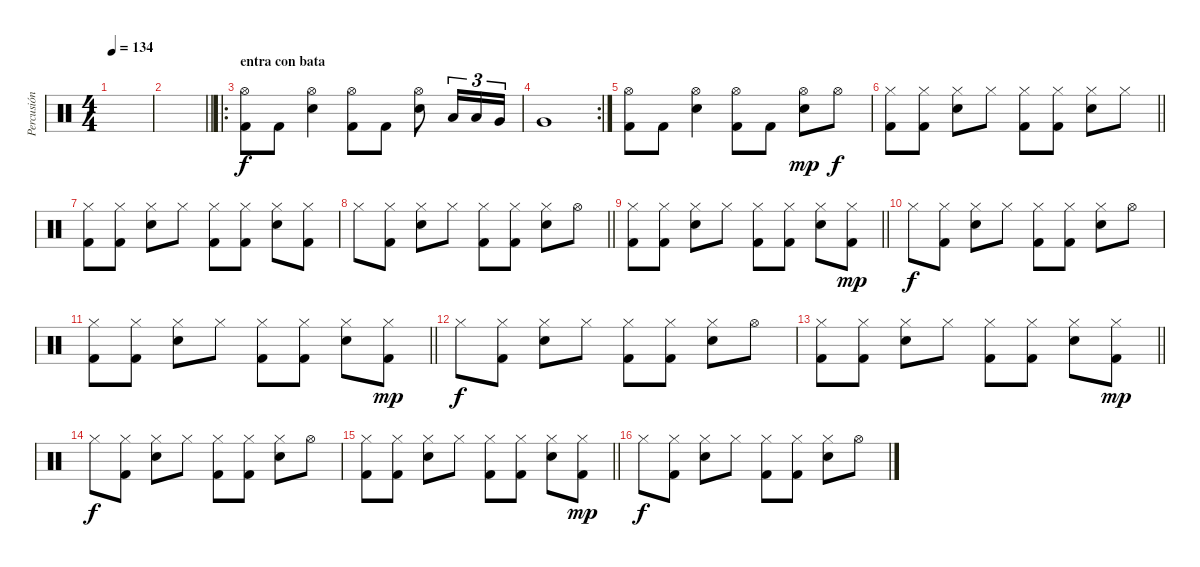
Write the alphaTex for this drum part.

\track ("Percusión" "Percusión") {instrument percussion}
\staff {score}
\articulation defaults
\ts (4 4)
\tempo 134
\clef neutral
\ks c
|
\barLineRight lightlight
|
\ro
\section ("" "entra con bata")
("Hi-Hat (open)" "Kick (hit) 2").8 "Kick (hit) 2".8 ("Hi-Hat (open)" "Electric Snare (hit)").4 ("Hi-Hat (open)" "Kick (hit) 2").8 "Kick (hit) 2".8 ("Hi-Hat (open)" "Electric Snare (hit)").8 "Low Tom (hit)".16{tu (3 2)} "Low Tom (hit)".16{tu (3 2)} "Very Low Tom (hit)".16{tu (3 2)} |
\rc 2 "Very Low Tom (hit)".1
|
("Hi-Hat (open)" "Kick (hit) 2").8 "Kick (hit) 2".8 ("Hi-Hat (open)" "Electric Snare (hit)").4 ("Hi-Hat (open)" "Kick (hit) 2").8 "Kick (hit) 2".8 ("Hi-Hat (open)" "Electric Snare (hit)").8{dy mp} "Hi-Hat (open)".8{dy f} |
\barLineRight lightlight
("Hi-Hat (closed)" "Kick (hit) 2").8 ("Hi-Hat (closed)" "Kick (hit) 2").8 ("Hi-Hat (closed)" "Electric Snare (hit)").8 "Hi-Hat (closed)".8 ("Hi-Hat (closed)" "Kick (hit) 2").8 ("Hi-Hat (closed)" "Kick (hit) 2").8 ("Hi-Hat (closed)" "Electric Snare (hit)").8 "Hi-Hat (closed)".8 |
("Hi-Hat (closed)" "Kick (hit) 2").8 ("Hi-Hat (closed)" "Kick (hit) 2").8 ("Hi-Hat (closed)" "Electric Snare (hit)").8 "Hi-Hat (closed)".8 ("Hi-Hat (closed)" "Kick (hit) 2").8 ("Hi-Hat (closed)" "Kick (hit) 2").8 ("Hi-Hat (closed)" "Electric Snare (hit)").8 ("Hi-Hat (closed)" "Kick (hit) 2").8 |
\barLineRight lightlight "Hi-Hat (closed)".8
("Hi-Hat (closed)" "Kick (hit) 2").8 ("Hi-Hat (closed)" "Electric Snare (hit)").8 "Hi-Hat (closed)".8 ("Hi-Hat (closed)" "Kick (hit) 2").8 ("Hi-Hat (closed)" "Kick (hit) 2").8 ("Hi-Hat (closed)" "Electric Snare (hit)").8 "Hi-Hat (open)".8 |
\barLineRight lightlight
("Hi-Hat (closed)" "Kick (hit) 2").8 ("Hi-Hat (closed)" "Kick (hit) 2").8 ("Hi-Hat (closed)" "Electric Snare (hit)").8 "Hi-Hat (closed)".8 ("Hi-Hat (closed)" "Kick (hit) 2").8 ("Hi-Hat (closed)" "Kick (hit) 2").8 ("Hi-Hat (closed)" "Electric Snare (hit)").8 ("Hi-Hat (closed)" "Kick (hit) 2").8{dy mp} |
"Hi-Hat (closed)".8{dy f} ("Hi-Hat (closed)" "Kick (hit) 2").8 ("Hi-Hat (closed)" "Electric Snare (hit)").8 "Hi-Hat (closed)".8 ("Hi-Hat (closed)" "Kick (hit) 2").8 ("Hi-Hat (closed)" "Kick (hit) 2").8 ("Hi-Hat (closed)" "Electric Snare (hit)").8 "Hi-Hat (open)".8 |
\barLineRight lightlight
("Hi-Hat (closed)" "Kick (hit) 2").8 ("Hi-Hat (closed)" "Kick (hit) 2").8 ("Hi-Hat (closed)" "Electric Snare (hit)").8 "Hi-Hat (closed)".8 ("Hi-Hat (closed)" "Kick (hit) 2").8 ("Hi-Hat (closed)" "Kick (hit) 2").8 ("Hi-Hat (closed)" "Electric Snare (hit)").8 ("Hi-Hat (closed)" "Kick (hit) 2").8{dy mp} |
"Hi-Hat (closed)".8{dy f} ("Hi-Hat (closed)" "Kick (hit) 2").8 ("Hi-Hat (closed)" "Electric Snare (hit)").8 "Hi-Hat (closed)".8 ("Hi-Hat (closed)" "Kick (hit) 2").8 ("Hi-Hat (closed)" "Kick (hit) 2").8 ("Hi-Hat (closed)" "Electric Snare (hit)").8 "Hi-Hat (open)".8 |
\barLineRight lightlight
("Hi-Hat (closed)" "Kick (hit) 2").8 ("Hi-Hat (closed)" "Kick (hit) 2").8 ("Hi-Hat (closed)" "Electric Snare (hit)").8 "Hi-Hat (closed)".8 ("Hi-Hat (closed)" "Kick (hit) 2").8 ("Hi-Hat (closed)" "Kick (hit) 2").8 ("Hi-Hat (closed)" "Electric Snare (hit)").8 ("Hi-Hat (closed)" "Kick (hit) 2").8{dy mp} |
"Hi-Hat (closed)".8{dy f} ("Hi-Hat (closed)" "Kick (hit) 2").8 ("Hi-Hat (closed)" "Electric Snare (hit)").8 "Hi-Hat (closed)".8 ("Hi-Hat (closed)" "Kick (hit) 2").8 ("Hi-Hat (closed)" "Kick (hit) 2").8 ("Hi-Hat (closed)" "Electric Snare (hit)").8 "Hi-Hat (open)".8 |
\barLineRight lightlight
("Hi-Hat (closed)" "Kick (hit) 2").8 ("Hi-Hat (closed)" "Kick (hit) 2").8 ("Hi-Hat (closed)" "Electric Snare (hit)").8 "Hi-Hat (closed)".8 ("Hi-Hat (closed)" "Kick (hit) 2").8 ("Hi-Hat (closed)" "Kick (hit) 2").8 ("Hi-Hat (closed)" "Electric Snare (hit)").8 ("Hi-Hat (closed)" "Kick (hit) 2").8{dy mp} |
"Hi-Hat (closed)".8{dy f} ("Hi-Hat (closed)" "Kick (hit) 2").8 ("Hi-Hat (closed)" "Electric Snare (hit)").8 "Hi-Hat (closed)".8 ("Hi-Hat (closed)" "Kick (hit) 2").8 ("Hi-Hat (closed)" "Kick (hit) 2").8 ("Hi-Hat (closed)" "Electric Snare (hit)").8 "Hi-Hat (open)".8
